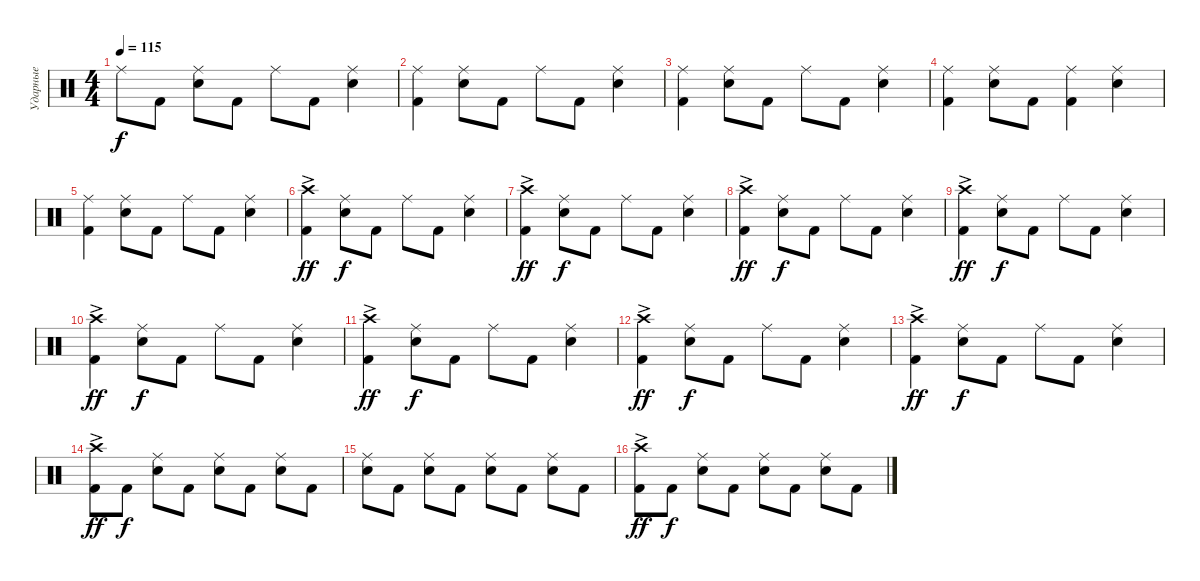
\track ("Ударные" "Ударные") {instrument percussion}
\staff {score}
\articulation defaults
\ts (4 4)
\tempo 115
\clef neutral
\ks c "Ride (middle)".8{dy f} "Kick (hit) 2".8
("Snare (hit) 2" "Ride (middle)").8 "Kick (hit) 2".8 "Ride (middle)".8 "Kick (hit) 2".8 ("Snare (hit) 2" "Ride (middle)").4 |
("Kick (hit) 2" "Ride (middle)").4 ("Snare (hit) 2" "Ride (middle)").8 "Kick (hit) 2".8 "Ride (middle)".8 "Kick (hit) 2".8 ("Snare (hit) 2" "Ride (middle)").4 |
("Kick (hit) 2" "Ride (middle)").4 ("Snare (hit) 2" "Ride (middle)").8 "Kick (hit) 2".8 "Ride (middle)".8 "Kick (hit) 2".8 ("Snare (hit) 2" "Ride (middle)").4 |
("Kick (hit) 2" "Ride (middle)").4 ("Snare (hit) 2" "Ride (middle)").8 "Kick (hit) 2".8 ("Kick (hit) 2" "Ride (middle)").4 ("Snare (hit) 2" "Ride (middle)").4 |
("Kick (hit) 2" "Ride (middle)").4 ("Snare (hit) 2" "Ride (middle)").8 "Kick (hit) 2".8 "Ride (middle)".8 "Kick (hit) 2".8 ("Snare (hit) 2" "Ride (middle)").4 |
("Kick (hit) 2" "Crash high (hit)"{ac}).4{dy ff} ("Snare (hit) 2" "Ride (middle)").8{dy f} "Kick (hit) 2".8 "Ride (middle)".8 "Kick (hit) 2".8 ("Snare (hit) 2" "Ride (middle)").4 |
("Kick (hit) 2" "Crash high (hit)"{ac}).4{dy ff} ("Snare (hit) 2" "Ride (middle)").8{dy f} "Kick (hit) 2".8 "Ride (middle)".8 "Kick (hit) 2".8 ("Snare (hit) 2" "Ride (middle)").4 |
("Kick (hit) 2" "Crash high (hit)"{ac}).4{dy ff} ("Snare (hit) 2" "Ride (middle)").8{dy f} "Kick (hit) 2".8 "Ride (middle)".8 "Kick (hit) 2".8 ("Snare (hit) 2" "Ride (middle)").4 |
("Kick (hit) 2" "Crash high (hit)"{ac}).4{dy ff} ("Snare (hit) 2" "Ride (middle)").8{dy f} "Kick (hit) 2".8 "Ride (middle)".8 "Kick (hit) 2".8 ("Snare (hit) 2" "Ride (middle)").4 |
("Kick (hit) 2" "Crash high (hit)"{ac}).4{dy ff} ("Snare (hit) 2" "Ride (middle)").8{dy f} "Kick (hit) 2".8 "Ride (middle)".8 "Kick (hit) 2".8 ("Snare (hit) 2" "Ride (middle)").4 |
("Kick (hit) 2" "Crash high (hit)"{ac}).4{dy ff} ("Snare (hit) 2" "Ride (middle)").8{dy f} "Kick (hit) 2".8 "Ride (middle)".8 "Kick (hit) 2".8 ("Snare (hit) 2" "Ride (middle)").4 |
("Kick (hit) 2" "Crash high (hit)"{ac}).4{dy ff} ("Snare (hit) 2" "Ride (middle)").8{dy f} "Kick (hit) 2".8 "Ride (middle)".8 "Kick (hit) 2".8 ("Snare (hit) 2" "Ride (middle)").4 |
("Kick (hit) 2" "Crash high (hit)"{ac}).4{dy ff} ("Snare (hit) 2" "Ride (middle)").8{dy f} "Kick (hit) 2".8 "Ride (middle)".8 "Kick (hit) 2".8 ("Snare (hit) 2" "Ride (middle)").4 |
("Kick (hit) 2" "Crash high (hit)"{ac}).8{dy ff} "Kick (hit) 2".8{dy f} ("Snare (hit) 2" "Ride (middle)").8 "Kick (hit) 2".8 ("Snare (hit) 2" "Ride (middle)").8 "Kick (hit) 2".8 ("Snare (hit) 2" "Ride (middle)").8 "Kick (hit) 2".8 |
("Snare (hit) 2" "Ride (middle)").8 "Kick (hit) 2".8 ("Snare (hit) 2" "Ride (middle)").8 "Kick (hit) 2".8 ("Snare (hit) 2" "Ride (middle)").8 "Kick (hit) 2".8 ("Snare (hit) 2" "Ride (middle)").8 "Kick (hit) 2".8 |
("Kick (hit) 2" "Crash high (hit)"{ac}).8{dy ff} "Kick (hit) 2".8{dy f} ("Snare (hit) 2" "Ride (middle)").8 "Kick (hit) 2".8 ("Snare (hit) 2" "Ride (middle)").8 "Kick (hit) 2".8 ("Snare (hit) 2" "Ride (middle)").8 "Kick (hit) 2".8
